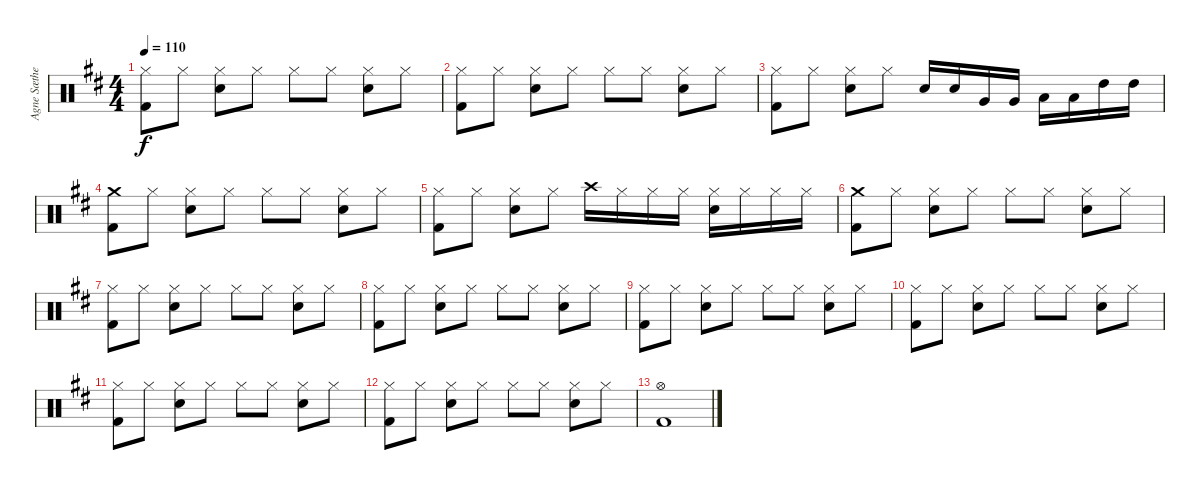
\track ("Agne Sæther - Trommer" "Agne Sæthe") {instrument percussion}
\staff {score}
\articulation defaults
\ts (4 4)
\tempo 110
\clef neutral
\ks d
("Hi-Hat (closed)" "Kick (hit) 2").8{dy f} "Hi-Hat (closed)".8 ("Hi-Hat (closed)" "Electric Snare (hit)").8 "Hi-Hat (closed)".8 "Hi-Hat (closed)".8 "Hi-Hat (closed)".8 ("Hi-Hat (closed)" "Electric Snare (hit)").8 "Hi-Hat (closed)".8 |
("Hi-Hat (closed)" "Kick (hit) 2").8 "Hi-Hat (closed)".8 ("Hi-Hat (closed)" "Electric Snare (hit)").8 "Hi-Hat (closed)".8 "Hi-Hat (closed)".8 "Hi-Hat (closed)".8 ("Hi-Hat (closed)" "Electric Snare (hit)").8 "Hi-Hat (closed)".8 |
("Hi-Hat (closed)" "Kick (hit) 2").8 "Hi-Hat (closed)".8 ("Hi-Hat (closed)" "Electric Snare (hit)").8 "Hi-Hat (closed)".8 "Electric Snare (hit)".16 "Electric Snare (hit)".16 "Very Low Tom (hit)".16 "Very Low Tom (hit)".16 "Low Tom (hit)".16 "Low Tom (hit)".16 "High Tom (hit)".16 "High Tom (hit)".16 |
("Crash medium (hit)" "Kick (hit) 2").8 "Hi-Hat (closed)".8 ("Hi-Hat (closed)" "Electric Snare (hit)").8 "Hi-Hat (closed)".8 "Hi-Hat (closed)".8 "Hi-Hat (closed)".8 ("Hi-Hat (closed)" "Electric Snare (hit)").8 "Hi-Hat (closed)".8 |
("Hi-Hat (closed)" "Kick (hit) 2").8 "Hi-Hat (closed)".8 ("Hi-Hat (closed)" "Electric Snare (hit)").8 "Hi-Hat (closed)".8 "Crash high (hit)".16 "Hi-Hat (closed)".16 "Hi-Hat (closed)".16 "Hi-Hat (closed)".16 ("Hi-Hat (closed)" "Electric Snare (hit)").16 "Hi-Hat (closed)".16 "Hi-Hat (closed)".16 "Hi-Hat (closed)".16 |
("Crash medium (hit)" "Kick (hit) 2").8 "Hi-Hat (closed)".8 ("Hi-Hat (closed)" "Electric Snare (hit)").8 "Hi-Hat (closed)".8 "Hi-Hat (closed)".8 "Hi-Hat (closed)".8 ("Hi-Hat (closed)" "Electric Snare (hit)").8 "Hi-Hat (closed)".8 |
("Hi-Hat (closed)" "Kick (hit) 2").8 "Hi-Hat (closed)".8 ("Hi-Hat (closed)" "Electric Snare (hit)").8 "Hi-Hat (closed)".8 "Hi-Hat (closed)".8 "Hi-Hat (closed)".8 ("Hi-Hat (closed)" "Electric Snare (hit)").8 "Hi-Hat (closed)".8 |
("Hi-Hat (closed)" "Kick (hit) 2").8 "Hi-Hat (closed)".8 ("Hi-Hat (closed)" "Electric Snare (hit)").8 "Hi-Hat (closed)".8 "Hi-Hat (closed)".8 "Hi-Hat (closed)".8 ("Hi-Hat (closed)" "Electric Snare (hit)").8 "Hi-Hat (closed)".8 |
("Hi-Hat (closed)" "Kick (hit) 2").8 "Hi-Hat (closed)".8 ("Hi-Hat (closed)" "Electric Snare (hit)").8 "Hi-Hat (closed)".8 "Hi-Hat (closed)".8 "Hi-Hat (closed)".8 ("Hi-Hat (closed)" "Electric Snare (hit)").8 "Hi-Hat (closed)".8 |
("Hi-Hat (closed)" "Kick (hit) 2").8 "Hi-Hat (closed)".8 ("Hi-Hat (closed)" "Electric Snare (hit)").8 "Hi-Hat (closed)".8 "Hi-Hat (closed)".8 "Hi-Hat (closed)".8 ("Hi-Hat (closed)" "Electric Snare (hit)").8 "Hi-Hat (closed)".8 |
("Hi-Hat (closed)" "Kick (hit) 2").8 "Hi-Hat (closed)".8 ("Hi-Hat (closed)" "Electric Snare (hit)").8 "Hi-Hat (closed)".8 "Hi-Hat (closed)".8 "Hi-Hat (closed)".8 ("Hi-Hat (closed)" "Electric Snare (hit)").8 "Hi-Hat (closed)".8 |
("Hi-Hat (closed)" "Kick (hit) 2").8 "Hi-Hat (closed)".8 ("Hi-Hat (closed)" "Electric Snare (hit)").8 "Hi-Hat (closed)".8 "Hi-Hat (closed)".8 "Hi-Hat (closed)".8 ("Hi-Hat (closed)" "Electric Snare (hit)").8 "Hi-Hat (closed)".8 |
("Hi-Hat (open)" "Kick (hit) 2").1
